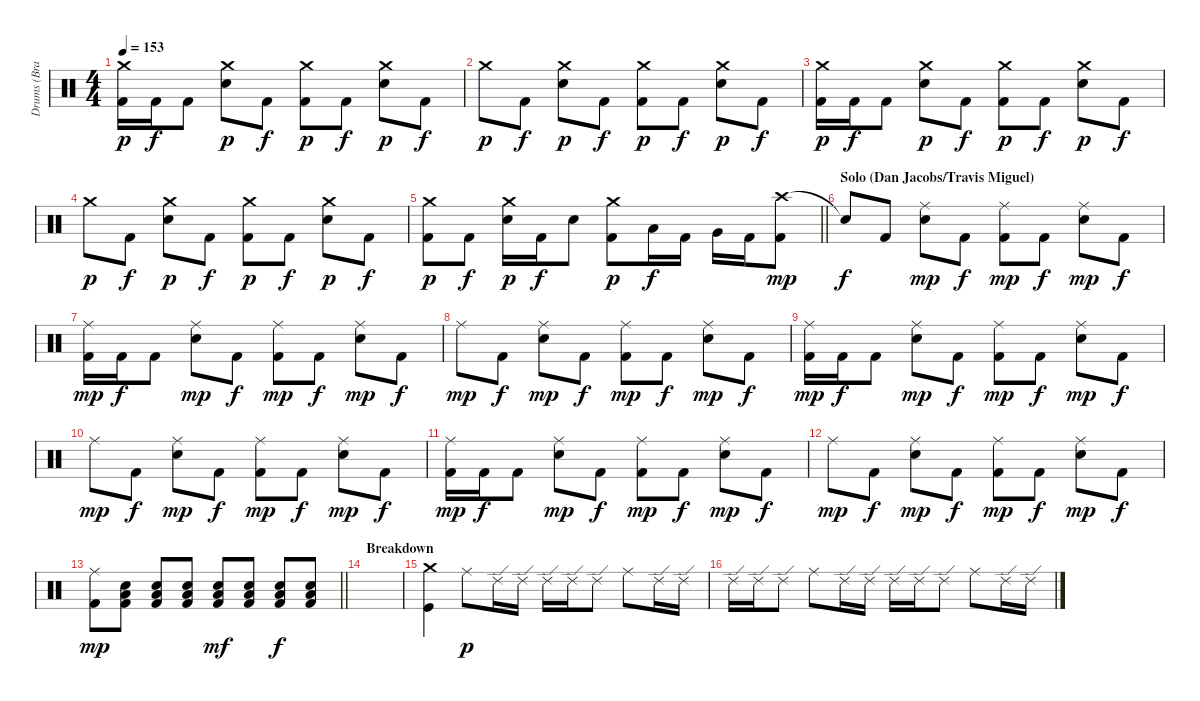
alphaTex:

\track ("Drums (Brandon Saller)" "Drums (Bra") {instrument percussion}
\staff {score}
\articulation defaults
\ts (4 4)
\tempo 153
\clef neutral
\ks c
("Crash medium (hit)" "Kick (hit) 2").16{dy p} "Kick (hit) 2".16{dy f} "Kick (hit) 2".8 ("Crash medium (hit)" "Electric Snare (hit)").8{dy p} "Kick (hit) 2".8{dy f} ("Crash medium (hit)" "Kick (hit) 2").8{dy p} "Kick (hit) 2".8{dy f} ("Crash medium (hit)" "Electric Snare (hit)").8{dy p} "Kick (hit) 2".8{dy f} |
"Crash medium (hit)".8{dy p} "Kick (hit) 2".8{dy f} ("Crash medium (hit)" "Electric Snare (hit)").8{dy p} "Kick (hit) 2".8{dy f} ("Crash medium (hit)" "Kick (hit) 2").8{dy p} "Kick (hit) 2".8{dy f} ("Crash medium (hit)" "Electric Snare (hit)").8{dy p} "Kick (hit) 2".8{dy f} |
("Crash medium (hit)" "Kick (hit) 2").16{dy p} "Kick (hit) 2".16{dy f} "Kick (hit) 2".8 ("Crash medium (hit)" "Electric Snare (hit)").8{dy p} "Kick (hit) 2".8{dy f} ("Crash medium (hit)" "Kick (hit) 2").8{dy p} "Kick (hit) 2".8{dy f} ("Crash medium (hit)" "Electric Snare (hit)").8{dy p} "Kick (hit) 2".8{dy f} |
"Crash medium (hit)".8{dy p} "Kick (hit) 2".8{dy f} ("Crash medium (hit)" "Electric Snare (hit)").8{dy p} "Kick (hit) 2".8{dy f} ("Crash medium (hit)" "Kick (hit) 2").8{dy p} "Kick (hit) 2".8{dy f} ("Crash medium (hit)" "Electric Snare (hit)").8{dy p} "Kick (hit) 2".8{dy f} |
\barLineRight lightlight
("Crash medium (hit)" "Kick (hit) 2").8{dy p} "Kick (hit) 2".8{dy f} ("Crash medium (hit)" "Electric Snare (hit)").16{dy p} "Kick (hit) 2".16{dy f} "Electric Snare (hit)".8 ("Crash medium (hit)" "Kick (hit) 2").8{dy p} "Low Tom (hit)".16{dy f} "Kick (hit) 2".16 "Very Low Tom (hit)".16 "Kick (hit) 2".16 ("Crash high (hit)" "Kick (hit) 2").8{dy mp} |
\section ("" "Solo (Dan Jacobs/Travis Miguel)")
"Snare (hit)"{t}.8{dy f} "Kick (hit) 2".8 ("Ride (middle)" "Electric Snare (hit)").8{dy mp} "Kick (hit) 2".8{dy f} ("Ride (middle)" "Kick (hit) 2").8{dy mp} "Kick (hit) 2".8{dy f} ("Ride (middle)" "Electric Snare (hit)").8{dy mp} "Kick (hit) 2".8{dy f} |
("Ride (middle)" "Kick (hit) 2").16{dy mp} "Kick (hit) 2".16{dy f} "Kick (hit) 2".8 ("Ride (middle)" "Electric Snare (hit)").8{dy mp} "Kick (hit) 2".8{dy f} ("Ride (middle)" "Kick (hit) 2").8{dy mp} "Kick (hit) 2".8{dy f} ("Ride (middle)" "Electric Snare (hit)").8{dy mp} "Kick (hit) 2".8{dy f} |
"Ride (middle)".8{dy mp} "Kick (hit) 2".8{dy f} ("Ride (middle)" "Electric Snare (hit)").8{dy mp} "Kick (hit) 2".8{dy f} ("Ride (middle)" "Kick (hit) 2").8{dy mp} "Kick (hit) 2".8{dy f} ("Ride (middle)" "Electric Snare (hit)").8{dy mp} "Kick (hit) 2".8{dy f} |
("Ride (middle)" "Kick (hit) 2").16{dy mp} "Kick (hit) 2".16{dy f} "Kick (hit) 2".8 ("Ride (middle)" "Electric Snare (hit)").8{dy mp} "Kick (hit) 2".8{dy f} ("Ride (middle)" "Kick (hit) 2").8{dy mp} "Kick (hit) 2".8{dy f} ("Ride (middle)" "Electric Snare (hit)").8{dy mp} "Kick (hit) 2".8{dy f} |
"Ride (middle)".8{dy mp} "Kick (hit) 2".8{dy f} ("Ride (middle)" "Electric Snare (hit)").8{dy mp} "Kick (hit) 2".8{dy f} ("Ride (middle)" "Kick (hit) 2").8{dy mp} "Kick (hit) 2".8{dy f} ("Ride (middle)" "Electric Snare (hit)").8{dy mp} "Kick (hit) 2".8{dy f} |
("Ride (middle)" "Kick (hit) 2").16{dy mp} "Kick (hit) 2".16{dy f} "Kick (hit) 2".8 ("Ride (middle)" "Electric Snare (hit)").8{dy mp} "Kick (hit) 2".8{dy f} ("Ride (middle)" "Kick (hit) 2").8{dy mp} "Kick (hit) 2".8{dy f} ("Ride (middle)" "Electric Snare (hit)").8{dy mp} "Kick (hit) 2".8{dy f} |
"Ride (middle)".8{dy mp} "Kick (hit) 2".8{dy f} ("Ride (middle)" "Electric Snare (hit)").8{dy mp} "Kick (hit) 2".8{dy f} ("Ride (middle)" "Kick (hit) 2").8{dy mp} "Kick (hit) 2".8{dy f} ("Ride (middle)" "Electric Snare (hit)").8{dy mp} "Kick (hit) 2".8{dy f} |
\barLineRight lightlight
("Ride (middle)" "Kick (hit) 2").8{dy mp} ("Electric Snare (hit)" "Low Floor Tom (hit)" "Kick (hit) 2").8 ("Electric Snare (hit)" "Low Floor Tom (hit)" "Kick (hit) 2").8 ("Electric Snare (hit)" "Low Floor Tom (hit)" "Kick (hit) 2").8 ("Electric Snare (hit)" "Low Floor Tom (hit)" "Kick (hit) 2").8{dy mf} ("Electric Snare (hit)" "Low Floor Tom (hit)" "Kick (hit) 2").8 ("Electric Snare (hit)" "Low Floor Tom (hit)" "Kick (hit) 2").8{dy f} ("Electric Snare (hit)" "Low Floor Tom (hit)" "Kick (hit) 2").8 |
\section ("" "Breakdown")
|
("Crash medium (hit)" "Kick (hit)").4 "Ride (middle)".8{dy p} "Ride (edge) 2".16 "Ride (edge) 2".16 "Ride (edge) 2".16 "Ride (edge) 2".16 "Ride (edge) 2".8 "Ride (middle)".8 "Ride (edge) 2".16 "Ride (edge) 2".16 |
"Ride (edge) 2".16 "Ride (edge) 2".16 "Ride (edge) 2".8 "Ride (middle)".8 "Ride (edge) 2".16 "Ride (edge) 2".16 "Ride (edge) 2".16 "Ride (edge) 2".16 "Ride (edge) 2".8 "Ride (middle)".8 "Ride (edge) 2".16 "Ride (edge) 2".16
